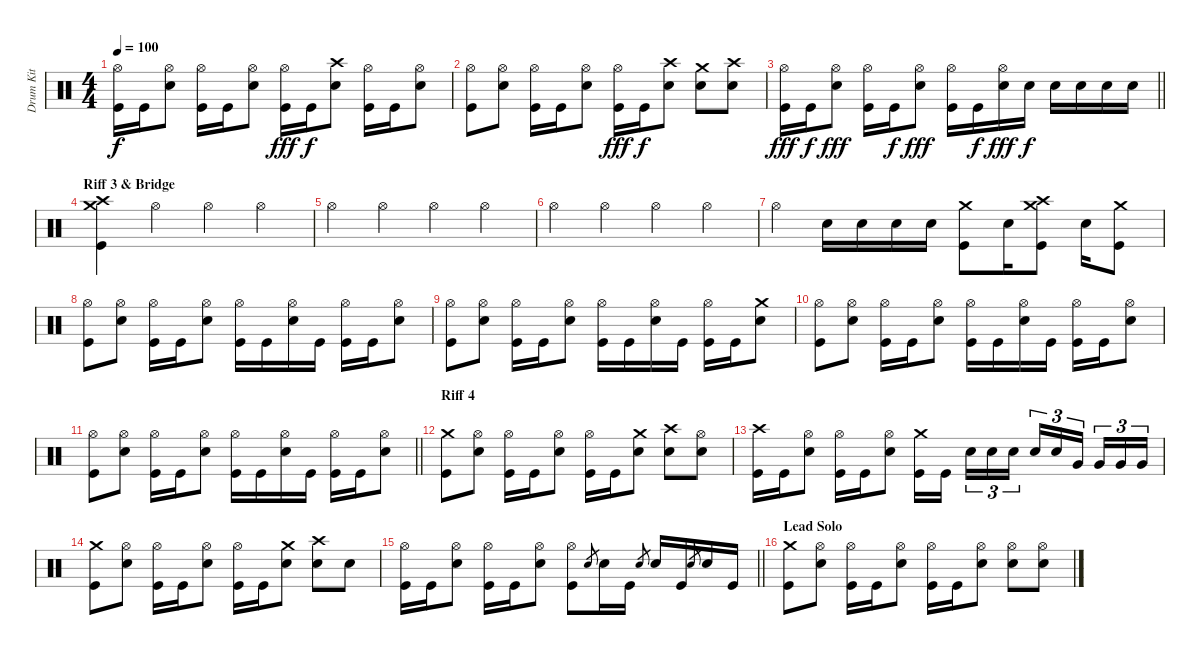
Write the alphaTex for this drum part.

\track ("Drum Kit" "Drum Kit") {instrument percussion}
\staff {score}
\articulation defaults
\ts (4 4)
\tempo 100
\clef neutral
\ks c
("Hi-Hat (open)" "Kick (hit)").16{dy f} "Kick (hit)".16 ("Hi-Hat (open)" "Electric Snare (hit)").8 ("Hi-Hat (open)" "Kick (hit)").16 "Kick (hit)".16 ("Hi-Hat (open)" "Electric Snare (hit)").8 ("Hi-Hat (open)" "Kick (hit)").16{dy fff} "Kick (hit)".16{dy f} ("Crash high (hit)" "Electric Snare (hit)").8 ("Hi-Hat (open)" "Kick (hit)").16 "Kick (hit)".16 ("Hi-Hat (open)" "Electric Snare (hit)").8 |
("Hi-Hat (open)" "Kick (hit)").8 ("Hi-Hat (open)" "Electric Snare (hit)").8 ("Hi-Hat (open)" "Kick (hit)").16 "Kick (hit)".16 ("Hi-Hat (open)" "Electric Snare (hit)").8 ("Hi-Hat (open)" "Kick (hit)").16{dy fff} "Kick (hit)".16{dy f} ("Crash high (hit)" "Electric Snare (hit)").8 ("Crash medium (hit)" "Electric Snare (hit)").8 ("Crash high (hit)" "Electric Snare (hit)").8 |
\barLineRight lightlight
("Hi-Hat (open)" "Kick (hit)").16{dy fff} "Kick (hit)".16{dy f} ("Hi-Hat (open)" "Electric Snare (hit)").8{dy fff} ("Hi-Hat (open)" "Kick (hit)").16 "Kick (hit)".16{dy f} ("Hi-Hat (open)" "Electric Snare (hit)").8{dy fff} ("Hi-Hat (open)" "Kick (hit)").16 "Kick (hit)".16{dy f} ("Hi-Hat (open)" "Electric Snare (hit)").16{dy fff} "Electric Snare (hit)".16{dy f} "Electric Snare (hit)".16 "Electric Snare (hit)".16 "Electric Snare (hit)".16 "Electric Snare (hit)".16 |
\section ("" "Riff 3 & Bridge")
("Crash high (hit)" "Crash medium (hit)" "Kick (hit)").4 "Hi-Hat (open)".4 "Hi-Hat (open)".4 "Hi-Hat (open)".4 |
"Hi-Hat (open)".4 "Hi-Hat (open)".4 "Hi-Hat (open)".4 "Hi-Hat (open)".4 |
"Hi-Hat (open)".4 "Hi-Hat (open)".4 "Hi-Hat (open)".4 "Hi-Hat (open)".4 |
"Hi-Hat (open)".4 "Electric Snare (hit)".16 "Electric Snare (hit)".16 "Electric Snare (hit)".16 "Electric Snare (hit)".16 ("Crash medium (hit)" "Kick (hit)").8 "Electric Snare (hit)".16 ("Crash high (hit)" "Crash medium (hit)" "Kick (hit)").8 "Electric Snare (hit)".16 ("Crash medium (hit)" "Kick (hit)").8 |
("Hi-Hat (open)" "Kick (hit)").8 ("Hi-Hat (open)" "Electric Snare (hit)").8 ("Hi-Hat (open)" "Kick (hit)").16 "Kick (hit)".16 ("Hi-Hat (open)" "Electric Snare (hit)").8 ("Hi-Hat (open)" "Kick (hit)").16 "Kick (hit)".16 ("Hi-Hat (open)" "Electric Snare (hit)").16 "Kick (hit)".16 ("Hi-Hat (open)" "Kick (hit)").16 "Kick (hit)".16 ("Hi-Hat (open)" "Electric Snare (hit)").8 |
("Hi-Hat (open)" "Kick (hit)").8 ("Hi-Hat (open)" "Electric Snare (hit)").8 ("Hi-Hat (open)" "Kick (hit)").16 "Kick (hit)".16 ("Hi-Hat (open)" "Electric Snare (hit)").8 ("Hi-Hat (open)" "Kick (hit)").16 "Kick (hit)".16 ("Hi-Hat (open)" "Electric Snare (hit)").16 "Kick (hit)".16 ("Hi-Hat (open)" "Kick (hit)").16 "Kick (hit)".16 ("Crash medium (hit)" "Electric Snare (hit)").8 |
("Hi-Hat (open)" "Kick (hit)").8 ("Hi-Hat (open)" "Electric Snare (hit)").8 ("Hi-Hat (open)" "Kick (hit)").16 "Kick (hit)".16 ("Hi-Hat (open)" "Electric Snare (hit)").8 ("Hi-Hat (open)" "Kick (hit)").16 "Kick (hit)".16 ("Hi-Hat (open)" "Electric Snare (hit)").16 "Kick (hit)".16 ("Hi-Hat (open)" "Kick (hit)").16 "Kick (hit)".16 ("Hi-Hat (open)" "Electric Snare (hit)").8 |
\barLineRight lightlight
("Hi-Hat (open)" "Kick (hit)").8 ("Hi-Hat (open)" "Electric Snare (hit)").8 ("Hi-Hat (open)" "Kick (hit)").16 "Kick (hit)".16 ("Hi-Hat (open)" "Electric Snare (hit)").8 ("Hi-Hat (open)" "Kick (hit)").16 "Kick (hit)".16 ("Hi-Hat (open)" "Electric Snare (hit)").16 "Kick (hit)".16 ("Hi-Hat (open)" "Kick (hit)").16 "Kick (hit)".16 ("Hi-Hat (open)" "Electric Snare (hit)").8 |
\section ("" "Riff 4")
("Crash medium (hit)" "Kick (hit)").8 ("Hi-Hat (open)" "Electric Snare (hit)").8 ("Hi-Hat (open)" "Kick (hit)").16 "Kick (hit)".16 ("Hi-Hat (open)" "Electric Snare (hit)").8 ("Hi-Hat (open)" "Kick (hit)").16 "Kick (hit)".16 ("Crash medium (hit)" "Electric Snare (hit)").8 ("Crash high (hit)" "Electric Snare (hit)").8 ("Hi-Hat (open)" "Electric Snare (hit)").8 |
("Crash high (hit)" "Kick (hit)").16 "Kick (hit)".16 ("Hi-Hat (open)" "Electric Snare (hit)").8 ("Hi-Hat (open)" "Kick (hit)").16 "Kick (hit)".16 ("Hi-Hat (open)" "Electric Snare (hit)").8 ("Crash medium (hit)" "Kick (hit)").16 "Kick (hit)".16{beam splitsecondary} "Electric Snare (hit)".16{tu (3 2)} "Electric Snare (hit)".16{tu (3 2)} "Electric Snare (hit)".16{tu (3 2)} "Electric Snare (hit)".16{tu (3 2)} "Electric Snare (hit)".16{tu (3 2)} "Very Low Tom (hit)".16{tu (3 2) beam splitsecondary} "Very Low Tom (hit)".16{tu (3 2)} "Very Low Tom (hit)".16{tu (3 2)} "Very Low Tom (hit)".16{tu (3 2)} |
("Crash medium (hit)" "Kick (hit)").8 ("Hi-Hat (open)" "Electric Snare (hit)").8 ("Hi-Hat (open)" "Kick (hit)").16 "Kick (hit)".16 ("Hi-Hat (open)" "Electric Snare (hit)").8 ("Hi-Hat (open)" "Kick (hit)").16 "Kick (hit)".16 ("Crash medium (hit)" "Electric Snare (hit)").8 ("Crash high (hit)" "Electric Snare (hit)").8 "Electric Snare (hit)".8 |
\barLineRight lightlight
("Hi-Hat (open)" "Kick (hit)").16 "Kick (hit)".16 ("Hi-Hat (open)" "Electric Snare (hit)").8 ("Hi-Hat (open)" "Kick (hit)").16 "Kick (hit)".16 ("Hi-Hat (open)" "Electric Snare (hit)").8 ("Hi-Hat (open)" "Kick (hit)").8 "Electric Snare (hit)".8{gr} "Electric Snare (hit)".16 "Kick (hit)".16 "Electric Snare (hit)".8{gr} "Electric Snare (hit)".16 "Kick (hit)".16 "Electric Snare (hit)".8{gr} "Electric Snare (hit)".16 "Kick (hit)".16 |
\section ("" "Lead Solo")
("Crash medium (hit)" "Kick (hit)").8 ("Hi-Hat (open)" "Electric Snare (hit)").8 ("Hi-Hat (open)" "Kick (hit)").16 "Kick (hit)".16 ("Hi-Hat (open)" "Electric Snare (hit)").8 ("Hi-Hat (open)" "Kick (hit)").16 "Kick (hit)".16 ("Hi-Hat (open)" "Electric Snare (hit)").8 ("Hi-Hat (open)" "Electric Snare (hit)").8 ("Hi-Hat (open)" "Electric Snare (hit)").8
